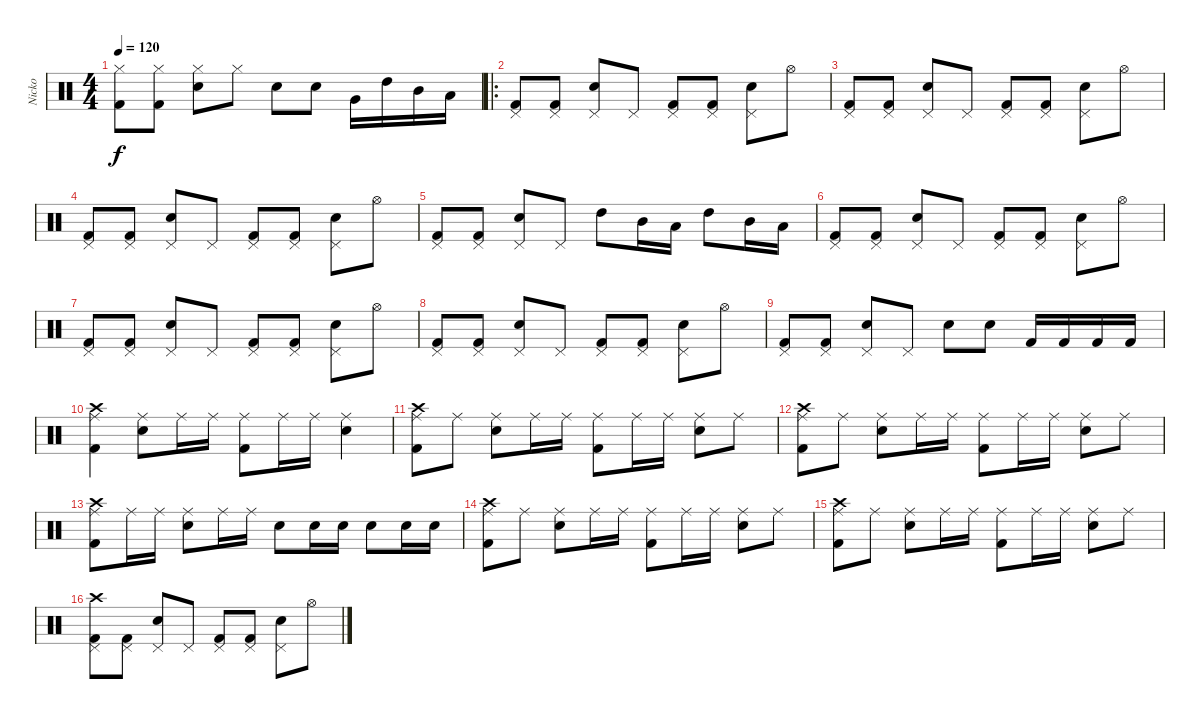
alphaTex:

\track ("Nicko" "Nicko") {instrument percussion}
\staff {score}
\articulation defaults
\ts (4 4)
\tempo 120
\clef neutral
\ks c
("Kick (hit) 2" "Hi-Hat (closed)").8{dy f} ("Kick (hit) 2" "Hi-Hat (closed)").8 ("Electric Snare (hit)" "Hi-Hat (closed)").8 "Hi-Hat (closed)".8 "Snare (hit) 2".8 "Snare (hit) 2".8 "Very Low Tom (hit)".16 "High Tom (hit)".16 "Mid Tom (hit)".16 "Low Tom (hit)".16 |
\ro
("Kick (hit) 2" "Pedal Hi-Hat (hit)").8 ("Kick (hit) 2" "Pedal Hi-Hat (hit)").8 ("Electric Snare (hit)" "Pedal Hi-Hat (hit)").8 "Pedal Hi-Hat (hit)".8 ("Kick (hit) 2" "Pedal Hi-Hat (hit)").8 ("Kick (hit) 2" "Pedal Hi-Hat (hit)").8 ("Electric Snare (hit)" "Pedal Hi-Hat (hit)").8 "Hi-Hat (open)".8 |
("Kick (hit) 2" "Pedal Hi-Hat (hit)").8 ("Kick (hit) 2" "Pedal Hi-Hat (hit)").8 ("Electric Snare (hit)" "Pedal Hi-Hat (hit)").8 "Pedal Hi-Hat (hit)".8 ("Kick (hit) 2" "Pedal Hi-Hat (hit)").8 ("Kick (hit) 2" "Pedal Hi-Hat (hit)").8 ("Electric Snare (hit)" "Pedal Hi-Hat (hit)").8 "Hi-Hat (open)".8 |
("Kick (hit) 2" "Pedal Hi-Hat (hit)").8 ("Kick (hit) 2" "Pedal Hi-Hat (hit)").8 ("Electric Snare (hit)" "Pedal Hi-Hat (hit)").8 "Pedal Hi-Hat (hit)".8 ("Kick (hit) 2" "Pedal Hi-Hat (hit)").8 ("Kick (hit) 2" "Pedal Hi-Hat (hit)").8 ("Electric Snare (hit)" "Pedal Hi-Hat (hit)").8 "Hi-Hat (open)".8 |
("Kick (hit) 2" "Pedal Hi-Hat (hit)").8 ("Kick (hit) 2" "Pedal Hi-Hat (hit)").8 ("Electric Snare (hit)" "Pedal Hi-Hat (hit)").8 "Pedal Hi-Hat (hit)".8 "High Tom (hit)".8 "Mid Tom (hit)".16 "Low Tom (hit)".16 "High Tom (hit)".8 "Mid Tom (hit)".16 "Low Tom (hit)".16 |
("Kick (hit) 2" "Pedal Hi-Hat (hit)").8 ("Kick (hit) 2" "Pedal Hi-Hat (hit)").8 ("Snare (hit) 2" "Pedal Hi-Hat (hit)").8 "Pedal Hi-Hat (hit)".8 ("Kick (hit) 2" "Pedal Hi-Hat (hit)").8 ("Kick (hit) 2" "Pedal Hi-Hat (hit)").8 ("Snare (hit) 2" "Pedal Hi-Hat (hit)").8 "Hi-Hat (open)".8 |
("Kick (hit) 2" "Pedal Hi-Hat (hit)").8 ("Kick (hit) 2" "Pedal Hi-Hat (hit)").8 ("Snare (hit) 2" "Pedal Hi-Hat (hit)").8 "Pedal Hi-Hat (hit)".8 ("Kick (hit) 2" "Pedal Hi-Hat (hit)").8 ("Kick (hit) 2" "Pedal Hi-Hat (hit)").8 ("Snare (hit) 2" "Pedal Hi-Hat (hit)").8 "Hi-Hat (open)".8 |
("Kick (hit) 2" "Pedal Hi-Hat (hit)").8 ("Kick (hit) 2" "Pedal Hi-Hat (hit)").8 ("Snare (hit) 2" "Pedal Hi-Hat (hit)").8 "Pedal Hi-Hat (hit)".8 ("Kick (hit) 2" "Pedal Hi-Hat (hit)").8 ("Kick (hit) 2" "Pedal Hi-Hat (hit)").8 ("Snare (hit) 2" "Pedal Hi-Hat (hit)").8 "Hi-Hat (open)".8 |
("Kick (hit) 2" "Pedal Hi-Hat (hit)").8 ("Kick (hit) 2" "Pedal Hi-Hat (hit)").8 ("Snare (hit) 2" "Pedal Hi-Hat (hit)").8 "Pedal Hi-Hat (hit)".8 "Snare (hit) 2".8 "Snare (hit) 2".8 "Kick (hit) 2".16 "Kick (hit) 2".16 "Kick (hit) 2".16 "Kick (hit) 2".16 |
("Kick (hit) 2" "Ride (middle)" "Crash high (hit)").4 ("Snare (hit) 2" "Ride (middle)").8 "Ride (middle)".16 "Ride (middle)".16 ("Kick (hit) 2" "Ride (middle)").8 "Ride (middle)".16 "Ride (middle)".16 ("Snare (hit) 2" "Ride (middle)").4 |
("Kick (hit) 2" "Ride (middle)" "Crash high (hit)").8 "Ride (middle)".8 ("Snare (hit) 2" "Ride (middle)").8 "Ride (middle)".16 "Ride (middle)".16 ("Kick (hit) 2" "Ride (middle)").8 "Ride (middle)".16 "Ride (middle)".16 ("Snare (hit) 2" "Ride (middle)").8 "Ride (middle)".8 |
("Kick (hit) 2" "Ride (middle)" "Crash high (hit)").8 "Ride (middle)".8 ("Snare (hit) 2" "Ride (middle)").8 "Ride (middle)".16 "Ride (middle)".16 ("Kick (hit) 2" "Ride (middle)").8 "Ride (middle)".16 "Ride (middle)".16 ("Snare (hit) 2" "Ride (middle)").8 "Ride (middle)".8 |
("Kick (hit) 2" "Ride (middle)" "Crash high (hit)").8 "Ride (middle)".16 "Ride (middle)".16 ("Snare (hit) 2" "Ride (middle)").8 "Ride (middle)".16 "Ride (middle)".16 "Snare (hit) 2".8 "Snare (hit) 2".16 "Snare (hit) 2".16 "Snare (hit) 2".8 "Snare (hit) 2".16 "Snare (hit) 2".16 |
("Kick (hit) 2" "Ride (middle)" "Crash high (hit)").8 "Ride (middle)".8 ("Snare (hit) 2" "Ride (middle)").8 "Ride (middle)".16 "Ride (middle)".16 ("Kick (hit) 2" "Ride (middle)").8 "Ride (middle)".16 "Ride (middle)".16 ("Snare (hit) 2" "Ride (middle)").8 "Ride (middle)".8 |
("Kick (hit) 2" "Ride (middle)" "Crash high (hit)").8 "Ride (middle)".8 ("Snare (hit) 2" "Ride (middle)").8 "Ride (middle)".16 "Ride (middle)".16 ("Kick (hit) 2" "Ride (middle)").8 "Ride (middle)".16 "Ride (middle)".16 ("Snare (hit) 2" "Ride (middle)").8 "Ride (middle)".8 |
("Kick (hit) 2" "Pedal Hi-Hat (hit)" "Crash high (hit)").8 ("Kick (hit) 2" "Pedal Hi-Hat (hit)").8 ("Snare (hit) 2" "Pedal Hi-Hat (hit)").8 "Pedal Hi-Hat (hit)".8 ("Kick (hit) 2" "Pedal Hi-Hat (hit)").8 ("Kick (hit) 2" "Pedal Hi-Hat (hit)").8 ("Snare (hit) 2" "Pedal Hi-Hat (hit)").8 "Hi-Hat (open)".8
